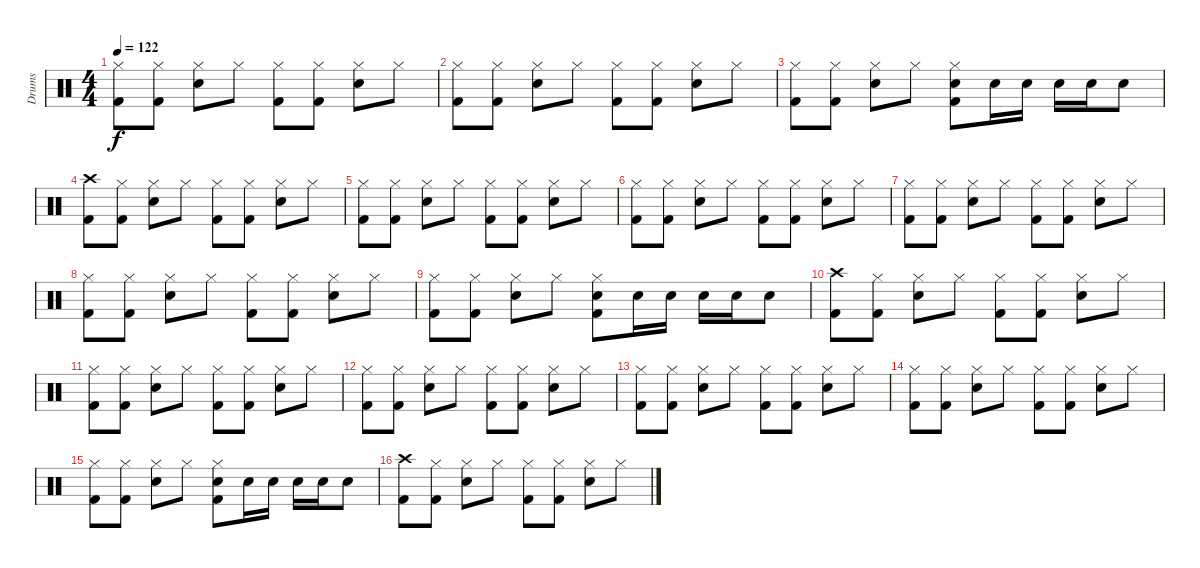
\track ("Drums" "Drums") {instrument percussion}
\staff {score}
\articulation defaults
\ts (4 4)
\tempo 122
\clef neutral
\ks c
("Hi-Hat (closed)" "Kick (hit) 2").8{dy f} ("Hi-Hat (closed)" "Kick (hit) 2").8 ("Hi-Hat (closed)" "Snare (hit) 2").8 "Hi-Hat (closed)".8 ("Hi-Hat (closed)" "Kick (hit) 2").8 ("Hi-Hat (closed)" "Kick (hit) 2").8 ("Hi-Hat (closed)" "Snare (hit) 2").8 "Hi-Hat (closed)".8 |
("Hi-Hat (closed)" "Kick (hit) 2").8 ("Hi-Hat (closed)" "Kick (hit) 2").8 ("Hi-Hat (closed)" "Snare (hit) 2").8 "Hi-Hat (closed)".8 ("Hi-Hat (closed)" "Kick (hit) 2").8 ("Hi-Hat (closed)" "Kick (hit) 2").8 ("Hi-Hat (closed)" "Snare (hit) 2").8 "Hi-Hat (closed)".8 |
("Hi-Hat (closed)" "Kick (hit) 2").8 ("Hi-Hat (closed)" "Kick (hit) 2").8 ("Hi-Hat (closed)" "Snare (hit) 2").8 "Hi-Hat (closed)".8 ("Hi-Hat (closed)" "Snare (hit) 2" "Kick (hit) 2").8 "Snare (hit) 2".16 "Snare (hit) 2".16 "Snare (hit) 2".16 "Snare (hit) 2".16 "Snare (hit) 2".8 |
("Crash high (hit)" "Kick (hit) 2").8 ("Hi-Hat (closed)" "Kick (hit) 2").8 ("Hi-Hat (closed)" "Snare (hit) 2").8 "Hi-Hat (closed)".8 ("Hi-Hat (closed)" "Kick (hit) 2").8 ("Hi-Hat (closed)" "Kick (hit) 2").8 ("Hi-Hat (closed)" "Snare (hit) 2").8 "Hi-Hat (closed)".8 |
("Hi-Hat (closed)" "Kick (hit) 2").8 ("Hi-Hat (closed)" "Kick (hit) 2").8 ("Hi-Hat (closed)" "Snare (hit) 2").8 "Hi-Hat (closed)".8 ("Hi-Hat (closed)" "Kick (hit) 2").8 ("Hi-Hat (closed)" "Kick (hit) 2").8 ("Hi-Hat (closed)" "Snare (hit) 2").8 "Hi-Hat (closed)".8 |
("Hi-Hat (closed)" "Kick (hit) 2").8 ("Hi-Hat (closed)" "Kick (hit) 2").8 ("Hi-Hat (closed)" "Snare (hit) 2").8 "Hi-Hat (closed)".8 ("Hi-Hat (closed)" "Kick (hit) 2").8 ("Hi-Hat (closed)" "Kick (hit) 2").8 ("Hi-Hat (closed)" "Snare (hit) 2").8 "Hi-Hat (closed)".8 |
("Hi-Hat (closed)" "Kick (hit) 2").8 ("Hi-Hat (closed)" "Kick (hit) 2").8 ("Hi-Hat (closed)" "Snare (hit) 2").8 "Hi-Hat (closed)".8 ("Hi-Hat (closed)" "Kick (hit) 2").8 ("Hi-Hat (closed)" "Kick (hit) 2").8 ("Hi-Hat (closed)" "Snare (hit) 2").8 "Hi-Hat (closed)".8 |
("Hi-Hat (closed)" "Kick (hit) 2").8 ("Hi-Hat (closed)" "Kick (hit) 2").8 ("Hi-Hat (closed)" "Snare (hit) 2").8 "Hi-Hat (closed)".8 ("Hi-Hat (closed)" "Kick (hit) 2").8 ("Hi-Hat (closed)" "Kick (hit) 2").8 ("Hi-Hat (closed)" "Snare (hit) 2").8 "Hi-Hat (closed)".8 |
("Hi-Hat (closed)" "Kick (hit) 2").8 ("Hi-Hat (closed)" "Kick (hit) 2").8 ("Hi-Hat (closed)" "Snare (hit) 2").8 "Hi-Hat (closed)".8 ("Hi-Hat (closed)" "Snare (hit) 2" "Kick (hit) 2").8 "Snare (hit) 2".16 "Snare (hit) 2".16 "Snare (hit) 2".16 "Snare (hit) 2".16 "Snare (hit) 2".8 |
("Crash high (hit)" "Kick (hit) 2").8 ("Hi-Hat (closed)" "Kick (hit) 2").8 ("Hi-Hat (closed)" "Snare (hit) 2").8 "Hi-Hat (closed)".8 ("Hi-Hat (closed)" "Kick (hit) 2").8 ("Hi-Hat (closed)" "Kick (hit) 2").8 ("Hi-Hat (closed)" "Snare (hit) 2").8 "Hi-Hat (closed)".8 |
("Hi-Hat (closed)" "Kick (hit) 2").8 ("Hi-Hat (closed)" "Kick (hit) 2").8 ("Hi-Hat (closed)" "Snare (hit) 2").8 "Hi-Hat (closed)".8 ("Hi-Hat (closed)" "Kick (hit) 2").8 ("Hi-Hat (closed)" "Kick (hit) 2").8 ("Hi-Hat (closed)" "Snare (hit) 2").8 "Hi-Hat (closed)".8 |
("Hi-Hat (closed)" "Kick (hit) 2").8 ("Hi-Hat (closed)" "Kick (hit) 2").8 ("Hi-Hat (closed)" "Snare (hit) 2").8 "Hi-Hat (closed)".8 ("Hi-Hat (closed)" "Kick (hit) 2").8 ("Hi-Hat (closed)" "Kick (hit) 2").8 ("Hi-Hat (closed)" "Snare (hit) 2").8 "Hi-Hat (closed)".8 |
("Hi-Hat (closed)" "Kick (hit) 2").8 ("Hi-Hat (closed)" "Kick (hit) 2").8 ("Hi-Hat (closed)" "Snare (hit) 2").8 "Hi-Hat (closed)".8 ("Hi-Hat (closed)" "Kick (hit) 2").8 ("Hi-Hat (closed)" "Kick (hit) 2").8 ("Hi-Hat (closed)" "Snare (hit) 2").8 "Hi-Hat (closed)".8 |
("Hi-Hat (closed)" "Kick (hit) 2").8 ("Hi-Hat (closed)" "Kick (hit) 2").8 ("Hi-Hat (closed)" "Snare (hit) 2").8 "Hi-Hat (closed)".8 ("Hi-Hat (closed)" "Kick (hit) 2").8 ("Hi-Hat (closed)" "Kick (hit) 2").8 ("Hi-Hat (closed)" "Snare (hit) 2").8 "Hi-Hat (closed)".8 |
("Hi-Hat (closed)" "Kick (hit) 2").8 ("Hi-Hat (closed)" "Kick (hit) 2").8 ("Hi-Hat (closed)" "Snare (hit) 2").8 "Hi-Hat (closed)".8 ("Hi-Hat (closed)" "Snare (hit) 2" "Kick (hit) 2").8 "Snare (hit) 2".16 "Snare (hit) 2".16 "Snare (hit) 2".16 "Snare (hit) 2".16 "Snare (hit) 2".8 |
("Crash high (hit)" "Kick (hit) 2").8 ("Hi-Hat (closed)" "Kick (hit) 2").8 ("Hi-Hat (closed)" "Snare (hit) 2").8 "Hi-Hat (closed)".8 ("Hi-Hat (closed)" "Kick (hit) 2").8 ("Hi-Hat (closed)" "Kick (hit) 2").8 ("Hi-Hat (closed)" "Snare (hit) 2").8 "Hi-Hat (closed)".8
